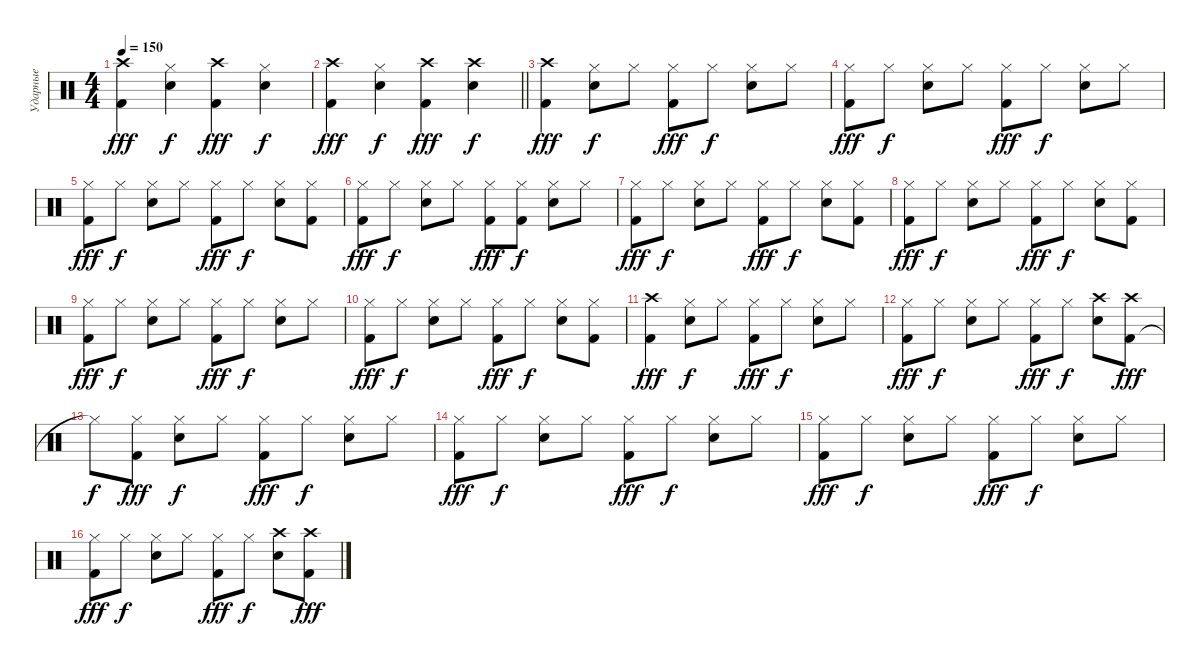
\track ("Ударные" "Ударные") {instrument percussion}
\staff
\articulation defaults
\ts (4 4)
\tempo 150
\clef neutral
\ks c
("Kick (hit) 2" "Crash high (hit)").4{dy fff} ("Snare (hit) 2" "Hi-Hat (closed)").4{dy f} ("Kick (hit) 2" "Crash high (hit)").4{dy fff} ("Snare (hit) 2" "Hi-Hat (closed)").4{dy f} |
\barLineRight lightlight
("Kick (hit) 2" "Crash high (hit)").4{dy fff} ("Snare (hit) 2" "Hi-Hat (closed)").4{dy f} ("Kick (hit) 2" "Crash high (hit)").4{dy fff} ("Snare (hit) 2" "Crash high (hit)").4{dy f} |
("Kick (hit) 2" "Crash high (hit)").4{dy fff} ("Snare (hit) 2" "Hi-Hat (closed)").8{dy f} "Hi-Hat (closed)".8 ("Kick (hit) 2" "Hi-Hat (closed)").8{dy fff} "Hi-Hat (closed)".8{dy f} ("Snare (hit) 2" "Hi-Hat (closed)").8 "Hi-Hat (closed)".8 |
("Kick (hit) 2" "Hi-Hat (closed)").8{dy fff} "Hi-Hat (closed)".8{dy f} ("Snare (hit) 2" "Hi-Hat (closed)").8 "Hi-Hat (closed)".8 ("Kick (hit) 2" "Hi-Hat (closed)").8{dy fff} "Hi-Hat (closed)".8{dy f} ("Snare (hit) 2" "Hi-Hat (closed)").8 "Hi-Hat (closed)".8 |
("Kick (hit) 2" "Hi-Hat (closed)").8{dy fff} "Hi-Hat (closed)".8{dy f} ("Snare (hit) 2" "Hi-Hat (closed)").8 "Hi-Hat (closed)".8 ("Kick (hit) 2" "Hi-Hat (closed)").8{dy fff} "Hi-Hat (closed)".8{dy f} ("Snare (hit) 2" "Hi-Hat (closed)").8 ("Kick (hit) 2" "Hi-Hat (closed)").8 |
("Kick (hit) 2" "Hi-Hat (closed)").8{dy fff} "Hi-Hat (closed)".8{dy f} ("Snare (hit) 2" "Hi-Hat (closed)").8 "Hi-Hat (closed)".8 ("Kick (hit) 2" "Hi-Hat (closed)").8{dy fff} ("Kick (hit) 2" "Hi-Hat (closed)").8{dy f} ("Snare (hit) 2" "Hi-Hat (closed)").8 "Hi-Hat (closed)".8 |
("Kick (hit) 2" "Hi-Hat (closed)").8{dy fff} "Hi-Hat (closed)".8{dy f} ("Snare (hit) 2" "Hi-Hat (closed)").8 "Hi-Hat (closed)".8 ("Kick (hit) 2" "Hi-Hat (closed)").8{dy fff} "Hi-Hat (closed)".8{dy f} ("Snare (hit) 2" "Hi-Hat (closed)").8 ("Kick (hit) 2" "Hi-Hat (closed)").8 |
("Kick (hit) 2" "Hi-Hat (closed)").8{dy fff} "Hi-Hat (closed)".8{dy f} ("Snare (hit) 2" "Hi-Hat (closed)").8 "Hi-Hat (closed)".8 ("Kick (hit) 2" "Hi-Hat (closed)").8{dy fff} "Hi-Hat (closed)".8{dy f} ("Snare (hit) 2" "Hi-Hat (closed)").8 ("Kick (hit) 2" "Hi-Hat (closed)").8 |
("Kick (hit) 2" "Hi-Hat (closed)").8{dy fff} "Hi-Hat (closed)".8{dy f} ("Snare (hit) 2" "Hi-Hat (closed)").8 "Hi-Hat (closed)".8 ("Kick (hit) 2" "Hi-Hat (closed)").8{dy fff} "Hi-Hat (closed)".8{dy f} ("Snare (hit) 2" "Hi-Hat (closed)").8 "Hi-Hat (closed)".8 |
("Kick (hit) 2" "Hi-Hat (closed)").8{dy fff} "Hi-Hat (closed)".8{dy f} ("Snare (hit) 2" "Hi-Hat (closed)").8 "Hi-Hat (closed)".8 ("Kick (hit) 2" "Hi-Hat (closed)").8{dy fff} "Hi-Hat (closed)".8{dy f} ("Snare (hit) 2" "Hi-Hat (closed)").8 ("Kick (hit) 2" "Hi-Hat (closed)").8 |
("Kick (hit) 2" "Crash high (hit)").4{dy fff} ("Snare (hit) 2" "Hi-Hat (closed)").8{dy f} "Hi-Hat (closed)".8 ("Kick (hit) 2" "Hi-Hat (closed)").8{dy fff} "Hi-Hat (closed)".8{dy f} ("Snare (hit) 2" "Hi-Hat (closed)").8 "Hi-Hat (closed)".8 |
("Kick (hit) 2" "Hi-Hat (closed)").8{dy fff} "Hi-Hat (closed)".8{dy f} ("Snare (hit) 2" "Hi-Hat (closed)").8 "Hi-Hat (closed)".8 ("Kick (hit) 2" "Hi-Hat (closed)").8{dy fff} "Hi-Hat (closed)".8{dy f} ("Snare (hit) 2" "Crash high (hit)").8 ("Kick (hit) 2" "Crash high (hit)").8{dy fff} |
"Hi-Hat (closed)"{t}.8{dy f} ("Kick (hit) 2" "Hi-Hat (closed)").8{dy fff} ("Snare (hit) 2" "Hi-Hat (closed)").8{dy f} "Hi-Hat (closed)".8 ("Kick (hit) 2" "Hi-Hat (closed)").8{dy fff} "Hi-Hat (closed)".8{dy f} ("Snare (hit) 2" "Hi-Hat (closed)").8 "Hi-Hat (closed)".8 |
("Kick (hit) 2" "Hi-Hat (closed)").8{dy fff} "Hi-Hat (closed)".8{dy f} ("Snare (hit) 2" "Hi-Hat (closed)").8 "Hi-Hat (closed)".8 ("Kick (hit) 2" "Hi-Hat (closed)").8{dy fff} "Hi-Hat (closed)".8{dy f} ("Snare (hit) 2" "Hi-Hat (closed)").8 "Hi-Hat (closed)".8 |
("Kick (hit) 2" "Hi-Hat (closed)").8{dy fff} "Hi-Hat (closed)".8{dy f} ("Snare (hit) 2" "Hi-Hat (closed)").8 "Hi-Hat (closed)".8 ("Kick (hit) 2" "Hi-Hat (closed)").8{dy fff} "Hi-Hat (closed)".8{dy f} ("Snare (hit) 2" "Hi-Hat (closed)").8 "Hi-Hat (closed)".8 |
("Kick (hit) 2" "Hi-Hat (closed)").8{dy fff} "Hi-Hat (closed)".8{dy f} ("Snare (hit) 2" "Hi-Hat (closed)").8 "Hi-Hat (closed)".8 ("Kick (hit) 2" "Hi-Hat (closed)").8{dy fff} "Hi-Hat (closed)".8{dy f} ("Snare (hit) 2" "Crash high (hit)").8 ("Kick (hit) 2" "Crash high (hit)").8{dy fff}
